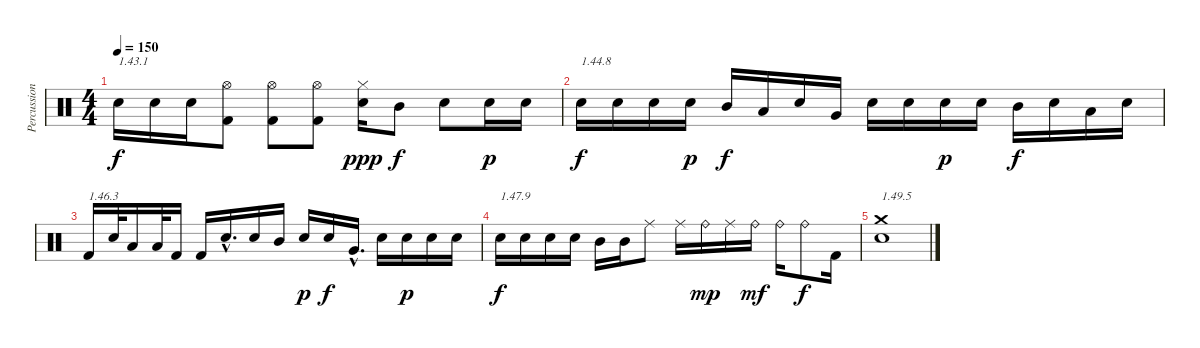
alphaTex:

\track ("Percussions" "Percussion") {instrument percussion}
\staff {score}
\articulation defaults
\ts (4 4)
\tempo 150
\clef neutral
\ks c "Electric Snare (hit)".16{txt "1.43.1" dy f} "Electric Snare (hit)".16 "Electric Snare (hit)".16
("Kick (hit) 2" "Hi-Hat (open)").8 ("Kick (hit) 2" "Hi-Hat (open)").8 ("Kick (hit) 2" "Hi-Hat (open)").8 ("Electric Snare (hit)" "Hi-Hat (closed)").16{dy ppp} "Mid Tom (hit)".8{dy f} "Electric Snare (hit)".8 "Electric Snare (hit)".16{dy p} "Electric Snare (hit)".16 |
"Electric Snare (hit)".16{txt "1.44.8" dy f} "Electric Snare (hit)".16 "Electric Snare (hit)".16 "Electric Snare (hit)".16{dy p} "Mid Tom (hit)".16{dy f} "Low Floor Tom (hit)".16 "Electric Snare (hit)".16 "Very Low Tom (hit)".16 "Electric Snare (hit)".16 "Electric Snare (hit)".16 "Electric Snare (hit)".16{dy p} "Electric Snare (hit)".16 "Mid Tom (hit)".16{dy f} "Electric Snare (hit)".16 "Low Tom (hit)".16 "Electric Snare (hit)".16 |
"Kick (hit) 2".16{txt "1.46.3"} "Electric Snare (hit)".32 "Low Tom (hit)".16 "Low Floor Tom (hit)".32 "Kick (hit) 2".16 "Kick (hit) 2".16 "Electric Snare (hit)"{hac}.16{d} "Electric Snare (hit)".16 "Mid Tom (hit)".16 "Electric Snare (hit)".16{dy p} "Electric Snare (hit)".16{dy f} "Very Low Tom (hit)"{hac}.16{d} "Electric Snare (hit)".16 "Electric Snare (hit)".16{dy p} "Electric Snare (hit)".16 "Electric Snare (hit)".16 |
"Electric Snare (hit)".16{txt "1.47.9" dy f} "Electric Snare (hit)".16 "Electric Snare (hit)".16 "Electric Snare (hit)".16 "Mid Tom (hit)".16 "Mid Tom (hit)".16 "Ride (middle)".8 "Ride (middle)".16 "Ride (bell)".16{dy mp} "Ride (middle)".16 "Ride (bell)".16{dy mf} "Ride (bell)".16 "Ride (bell)".8{dy f} "Kick (hit) 2".16 |
("Electric Snare (hit)" "Crash medium (hit)").1{txt "1.49.5"}
